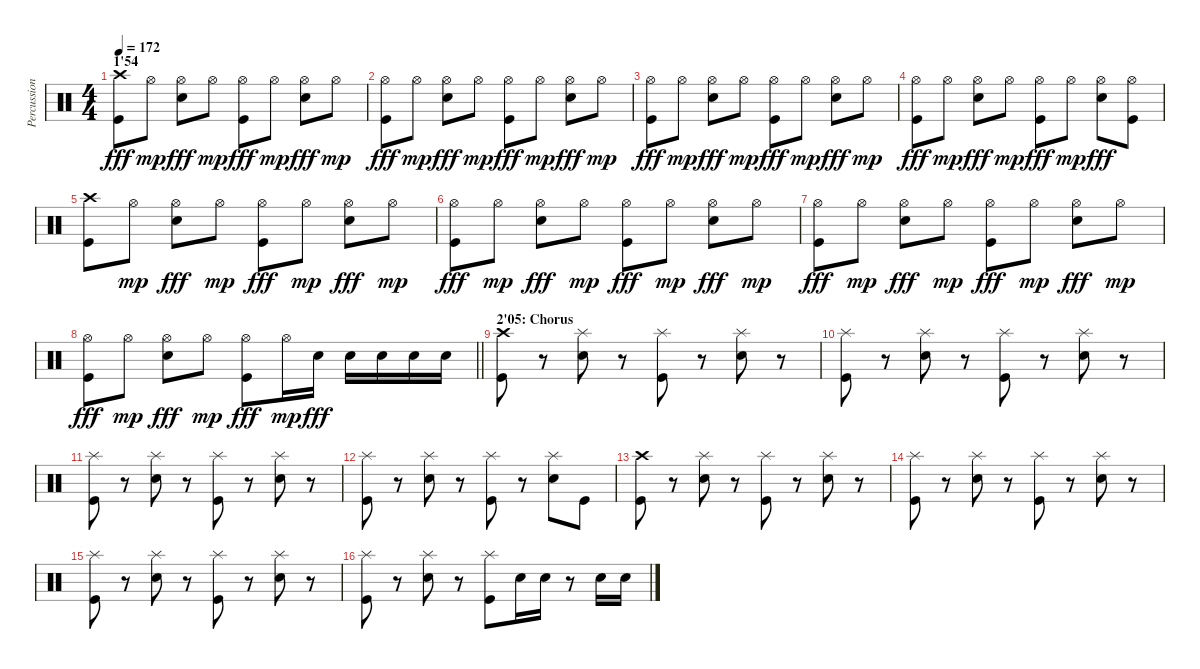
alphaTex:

\track ("Percussions" "Percussion") {instrument percussion}
\staff {score}
\articulation defaults
\ts (4 4)
\section ("" "1'54")
\tempo 172
\clef neutral
\ks c
("Crash high (hit)" "Kick (hit)").8{dy fff} "Hi-Hat (open)".8{dy mp} ("Hi-Hat (open)" "Snare (hit) 2").8{dy fff} "Hi-Hat (open)".8{dy mp} ("Hi-Hat (open)" "Kick (hit)").8{dy fff} "Hi-Hat (open)".8{dy mp} ("Hi-Hat (open)" "Snare (hit) 2").8{dy fff} "Hi-Hat (open)".8{dy mp} |
("Hi-Hat (open)" "Kick (hit)").8{dy fff} "Hi-Hat (open)".8{dy mp} ("Hi-Hat (open)" "Snare (hit) 2").8{dy fff} "Hi-Hat (open)".8{dy mp} ("Hi-Hat (open)" "Kick (hit)").8{dy fff} "Hi-Hat (open)".8{dy mp} ("Hi-Hat (open)" "Snare (hit) 2").8{dy fff} "Hi-Hat (open)".8{dy mp} |
("Hi-Hat (open)" "Kick (hit)").8{dy fff} "Hi-Hat (open)".8{dy mp} ("Hi-Hat (open)" "Snare (hit) 2").8{dy fff} "Hi-Hat (open)".8{dy mp} ("Hi-Hat (open)" "Kick (hit)").8{dy fff} "Hi-Hat (open)".8{dy mp} ("Hi-Hat (open)" "Snare (hit) 2").8{dy fff} "Hi-Hat (open)".8{dy mp} |
("Hi-Hat (open)" "Kick (hit)").8{dy fff} "Hi-Hat (open)".8{dy mp} ("Hi-Hat (open)" "Snare (hit) 2").8{dy fff} "Hi-Hat (open)".8{dy mp} ("Hi-Hat (open)" "Kick (hit)").8{dy fff} "Hi-Hat (open)".8{dy mp} ("Hi-Hat (open)" "Snare (hit) 2").8{dy fff} ("Hi-Hat (open)" "Kick (hit)").8 |
("Crash high (hit)" "Kick (hit)").8 "Hi-Hat (open)".8{dy mp} ("Hi-Hat (open)" "Snare (hit) 2").8{dy fff} "Hi-Hat (open)".8{dy mp} ("Hi-Hat (open)" "Kick (hit)").8{dy fff} "Hi-Hat (open)".8{dy mp} ("Hi-Hat (open)" "Snare (hit) 2").8{dy fff} "Hi-Hat (open)".8{dy mp} |
("Hi-Hat (open)" "Kick (hit)").8{dy fff} "Hi-Hat (open)".8{dy mp} ("Hi-Hat (open)" "Snare (hit) 2").8{dy fff} "Hi-Hat (open)".8{dy mp} ("Hi-Hat (open)" "Kick (hit)").8{dy fff} "Hi-Hat (open)".8{dy mp} ("Hi-Hat (open)" "Snare (hit) 2").8{dy fff} "Hi-Hat (open)".8{dy mp} |
("Hi-Hat (open)" "Kick (hit)").8{dy fff} "Hi-Hat (open)".8{dy mp} ("Hi-Hat (open)" "Snare (hit) 2").8{dy fff} "Hi-Hat (open)".8{dy mp} ("Hi-Hat (open)" "Kick (hit)").8{dy fff} "Hi-Hat (open)".8{dy mp} ("Hi-Hat (open)" "Snare (hit) 2").8{dy fff} "Hi-Hat (open)".8{dy mp} |
\barLineRight lightlight
("Hi-Hat (open)" "Kick (hit)").8{dy fff} "Hi-Hat (open)".8{dy mp} ("Hi-Hat (open)" "Snare (hit) 2").8{dy fff} "Hi-Hat (open)".8{dy mp} ("Hi-Hat (open)" "Kick (hit)").8{dy fff} "Hi-Hat (open)".16{dy mp} "Snare (hit) 2".16{dy fff} "Snare (hit) 2".16 "Snare (hit) 2".16 "Snare (hit) 2".16 "Snare (hit) 2".16 |
\section ("" "2'05: Chorus")
("Crash high (hit)" "Kick (hit)").8 r.8 ("Splash (hit)" "Snare (hit) 2").8 r.8 ("Splash (hit)" "Kick (hit)").8 r.8 ("Splash (hit)" "Snare (hit) 2").8 r.8 |
("Splash (hit)" "Kick (hit)").8 r.8 ("Splash (hit)" "Snare (hit) 2").8 r.8 ("Splash (hit)" "Kick (hit)").8 r.8 ("Splash (hit)" "Snare (hit) 2").8 r.8 |
("Splash (hit)" "Kick (hit)").8 r.8 ("Splash (hit)" "Snare (hit) 2").8 r.8 ("Splash (hit)" "Kick (hit)").8 r.8 ("Splash (hit)" "Snare (hit) 2").8 r.8 |
("Splash (hit)" "Kick (hit)").8 r.8 ("Splash (hit)" "Snare (hit) 2").8 r.8 ("Splash (hit)" "Kick (hit)").8 r.8 ("Splash (hit)" "Snare (hit) 2").8 "Kick (hit)".8 |
("Crash high (hit)" "Kick (hit)").8 r.8 ("Splash (hit)" "Snare (hit) 2").8 r.8 ("Splash (hit)" "Kick (hit)").8 r.8 ("Splash (hit)" "Snare (hit) 2").8 r.8 |
("Splash (hit)" "Kick (hit)").8 r.8 ("Splash (hit)" "Snare (hit) 2").8 r.8 ("Splash (hit)" "Kick (hit)").8 r.8 ("Splash (hit)" "Snare (hit) 2").8 r.8 |
("Splash (hit)" "Kick (hit)").8 r.8 ("Splash (hit)" "Snare (hit) 2").8 r.8 ("Splash (hit)" "Kick (hit)").8 r.8 ("Splash (hit)" "Snare (hit) 2").8 r.8 |
("Splash (hit)" "Kick (hit)").8 r.8 ("Splash (hit)" "Snare (hit) 2").8 r.8 ("Splash (hit)" "Kick (hit)").8 "Snare (hit) 2".16 "Snare (hit) 2".16 r.8 "Snare (hit) 2".16 "Snare (hit) 2".16
